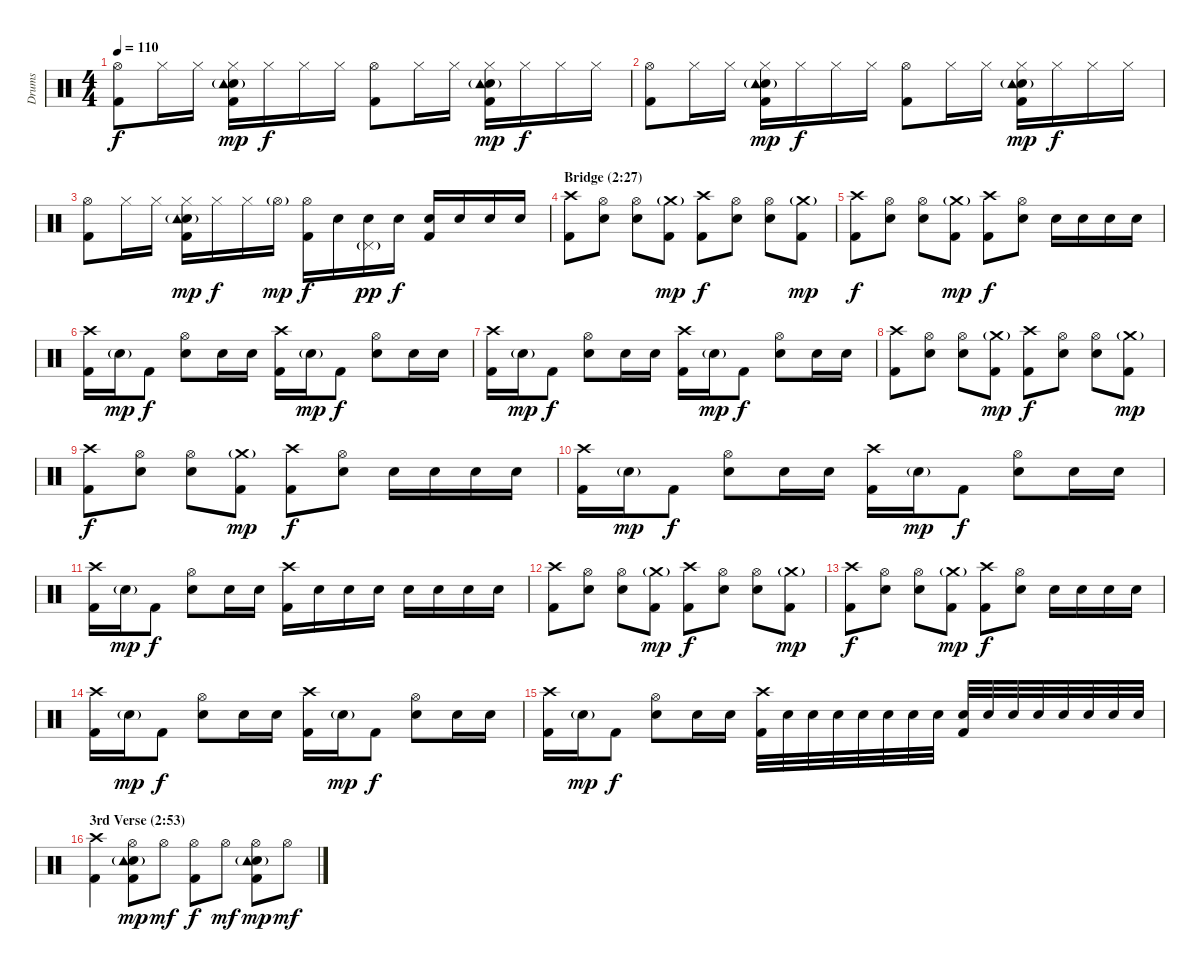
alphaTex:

\track ("Drums" "Drums") {instrument percussion}
\staff {score}
\articulation defaults
\ts (4 4)
\tempo 110
\clef neutral
\ks c
("Hi-Hat (open)" "Kick (hit) 2").8{dy f} "Hi-Hat (closed)".16 "Hi-Hat (closed)".16 ("Hi-Hat (closed)" "Snare (hit) 2" "Tambourine (hit)"{g} "Kick (hit) 2").16{dy mp} "Hi-Hat (closed)".16{dy f} "Hi-Hat (closed)".16 "Hi-Hat (closed)".16 ("Hi-Hat (open)" "Kick (hit) 2").8 "Hi-Hat (closed)".16 "Hi-Hat (closed)".16 ("Hi-Hat (closed)" "Snare (hit) 2" "Tambourine (hit)"{g} "Kick (hit) 2").16{dy mp} "Hi-Hat (closed)".16{dy f} "Hi-Hat (closed)".16 "Hi-Hat (closed)".16 |
("Hi-Hat (open)" "Kick (hit) 2").8 "Hi-Hat (closed)".16 "Hi-Hat (closed)".16 ("Hi-Hat (closed)" "Snare (hit) 2" "Tambourine (hit)"{g} "Kick (hit) 2").16{dy mp} "Hi-Hat (closed)".16{dy f} "Hi-Hat (closed)".16 "Hi-Hat (closed)".16 ("Hi-Hat (open)" "Kick (hit) 2").8 "Hi-Hat (closed)".16 "Hi-Hat (closed)".16 ("Hi-Hat (closed)" "Snare (hit) 2" "Tambourine (hit)"{g} "Kick (hit) 2").16{dy mp} "Hi-Hat (closed)".16{dy f} "Hi-Hat (closed)".16 "Hi-Hat (closed)".16 |
("Hi-Hat (open)" "Kick (hit) 2").8 "Hi-Hat (closed)".16 "Hi-Hat (closed)".16 ("Hi-Hat (closed)" "Snare (hit) 2" "Tambourine (hit)"{g} "Kick (hit) 2").16{dy mp} "Hi-Hat (closed)".16{dy f} "Hi-Hat (closed)".16 "Hi-Hat (open)"{g}.16{dy mp} ("Hi-Hat (open)" "Kick (hit) 2").16{dy f} "Snare (hit) 2".16 ("Pedal Hi-Hat (hit)"{g} "Snare (hit) 2").16{dy pp} "Snare (hit) 2".16{dy f} ("Snare (hit) 2" "Kick (hit) 2").16 "Snare (hit) 2".16 "Snare (hit) 2".16 "Snare (hit) 2".16 |
\section ("" "Bridge (2:27)")
("Crash high (hit)" "Kick (hit) 2").8 ("Hi-Hat (open)" "Snare (hit) 2").8 ("Hi-Hat (open)" "Snare (hit) 2").8 ("Crash medium (hit)"{g} "Kick (hit) 2").8{dy mp} ("Crash high (hit)" "Kick (hit) 2").8{dy f} ("Hi-Hat (open)" "Snare (hit) 2").8 ("Hi-Hat (open)" "Snare (hit) 2").8 ("Crash medium (hit)"{g} "Kick (hit) 2").8{dy mp} |
("Crash high (hit)" "Kick (hit) 2").8{dy f} ("Hi-Hat (open)" "Snare (hit) 2").8 ("Hi-Hat (open)" "Snare (hit) 2").8 ("Crash medium (hit)"{g} "Kick (hit) 2").8{dy mp} ("Crash high (hit)" "Kick (hit) 2").8{dy f} ("Hi-Hat (open)" "Snare (hit) 2").8 "Snare (hit) 2".16 "Snare (hit) 2".16 "Snare (hit) 2".16 "Snare (hit) 2".16 |
("Crash high (hit)" "Kick (hit) 2").16 "Snare (hit) 2"{g}.16{dy mp} "Kick (hit) 2".8{dy f} ("Hi-Hat (open)" "Snare (hit) 2").8 "Snare (hit) 2".16 "Snare (hit) 2".16 ("Crash high (hit)" "Kick (hit) 2").16 "Snare (hit) 2"{g}.16{dy mp} "Kick (hit) 2".8{dy f} ("Hi-Hat (open)" "Snare (hit) 2").8 "Snare (hit) 2".16 "Snare (hit) 2".16 |
("Crash high (hit)" "Kick (hit) 2").16 "Snare (hit) 2"{g}.16{dy mp} "Kick (hit) 2".8{dy f} ("Hi-Hat (open)" "Snare (hit) 2").8 "Snare (hit) 2".16 "Snare (hit) 2".16 ("Crash high (hit)" "Kick (hit) 2").16 "Snare (hit) 2"{g}.16{dy mp} "Kick (hit) 2".8{dy f} ("Hi-Hat (open)" "Snare (hit) 2").8 "Snare (hit) 2".16 "Snare (hit) 2".16 |
("Crash high (hit)" "Kick (hit) 2").8 ("Hi-Hat (open)" "Snare (hit) 2").8 ("Hi-Hat (open)" "Snare (hit) 2").8 ("Crash medium (hit)"{g} "Kick (hit) 2").8{dy mp} ("Crash high (hit)" "Kick (hit) 2").8{dy f} ("Hi-Hat (open)" "Snare (hit) 2").8 ("Hi-Hat (open)" "Snare (hit) 2").8 ("Crash medium (hit)"{g} "Kick (hit) 2").8{dy mp} |
("Crash high (hit)" "Kick (hit) 2").8{dy f} ("Hi-Hat (open)" "Snare (hit) 2").8 ("Hi-Hat (open)" "Snare (hit) 2").8 ("Crash medium (hit)"{g} "Kick (hit) 2").8{dy mp} ("Crash high (hit)" "Kick (hit) 2").8{dy f} ("Hi-Hat (open)" "Snare (hit) 2").8 "Snare (hit) 2".16 "Snare (hit) 2".16 "Snare (hit) 2".16 "Snare (hit) 2".16 |
("Crash high (hit)" "Kick (hit) 2").16 "Snare (hit) 2"{g}.16{dy mp} "Kick (hit) 2".8{dy f} ("Hi-Hat (open)" "Snare (hit) 2").8 "Snare (hit) 2".16 "Snare (hit) 2".16 ("Crash high (hit)" "Kick (hit) 2").16 "Snare (hit) 2"{g}.16{dy mp} "Kick (hit) 2".8{dy f} ("Hi-Hat (open)" "Snare (hit) 2").8 "Snare (hit) 2".16 "Snare (hit) 2".16 |
("Crash high (hit)" "Kick (hit) 2").16 "Snare (hit) 2"{g}.16{dy mp} "Kick (hit) 2".8{dy f} ("Hi-Hat (open)" "Snare (hit) 2").8 "Snare (hit) 2".16 "Snare (hit) 2".16 ("Crash high (hit)" "Kick (hit) 2").16 "Snare (hit) 2".16 "Snare (hit) 2".16 "Snare (hit) 2".16 "Snare (hit) 2".16 "Snare (hit) 2".16 "Snare (hit) 2".16 "Snare (hit) 2".16 |
("Crash high (hit)" "Kick (hit) 2").8 ("Hi-Hat (open)" "Snare (hit) 2").8 ("Hi-Hat (open)" "Snare (hit) 2").8 ("Crash medium (hit)"{g} "Kick (hit) 2").8{dy mp} ("Crash high (hit)" "Kick (hit) 2").8{dy f} ("Hi-Hat (open)" "Snare (hit) 2").8 ("Hi-Hat (open)" "Snare (hit) 2").8 ("Crash medium (hit)"{g} "Kick (hit) 2").8{dy mp} |
("Crash high (hit)" "Kick (hit) 2").8{dy f} ("Hi-Hat (open)" "Snare (hit) 2").8 ("Hi-Hat (open)" "Snare (hit) 2").8 ("Crash medium (hit)"{g} "Kick (hit) 2").8{dy mp} ("Crash high (hit)" "Kick (hit) 2").8{dy f} ("Hi-Hat (open)" "Snare (hit) 2").8 "Snare (hit) 2".16 "Snare (hit) 2".16 "Snare (hit) 2".16 "Snare (hit) 2".16 |
("Crash high (hit)" "Kick (hit) 2").16 "Snare (hit) 2"{g}.16{dy mp} "Kick (hit) 2".8{dy f} ("Hi-Hat (open)" "Snare (hit) 2").8 "Snare (hit) 2".16 "Snare (hit) 2".16 ("Crash high (hit)" "Kick (hit) 2").16 "Snare (hit) 2"{g}.16{dy mp} "Kick (hit) 2".8{dy f} ("Hi-Hat (open)" "Snare (hit) 2").8 "Snare (hit) 2".16 "Snare (hit) 2".16 |
("Crash high (hit)" "Kick (hit) 2").16 "Snare (hit) 2"{g}.16{dy mp} "Kick (hit) 2".8{dy f} ("Hi-Hat (open)" "Snare (hit) 2").8 "Snare (hit) 2".16 "Snare (hit) 2".16 ("Crash high (hit)" "Kick (hit) 2").32 "Snare (hit) 2".32 "Snare (hit) 2".32 "Snare (hit) 2".32 "Snare (hit) 2".32 "Snare (hit) 2".32 "Snare (hit) 2".32 "Snare (hit) 2".32 ("Snare (hit) 2" "Kick (hit) 2").32 "Snare (hit) 2".32 "Snare (hit) 2".32 "Snare (hit) 2".32 "Snare (hit) 2".32 "Snare (hit) 2".32 "Snare (hit) 2".32 "Snare (hit) 2".32 |
\section ("" "3rd Verse (2:53)")
("Crash high (hit)" "Kick (hit) 2").4 ("Hi-Hat (open)" "Snare (hit) 2" "Tambourine (hit)"{g} "Kick (hit) 2").8{dy mp} "Hi-Hat (open)".8{dy mf} ("Hi-Hat (open)" "Kick (hit) 2").8{dy f} "Hi-Hat (open)".8{dy mf} ("Hi-Hat (open)" "Snare (hit) 2" "Tambourine (hit)"{g} "Kick (hit) 2").8{dy mp} "Hi-Hat (open)".8{dy mf}
